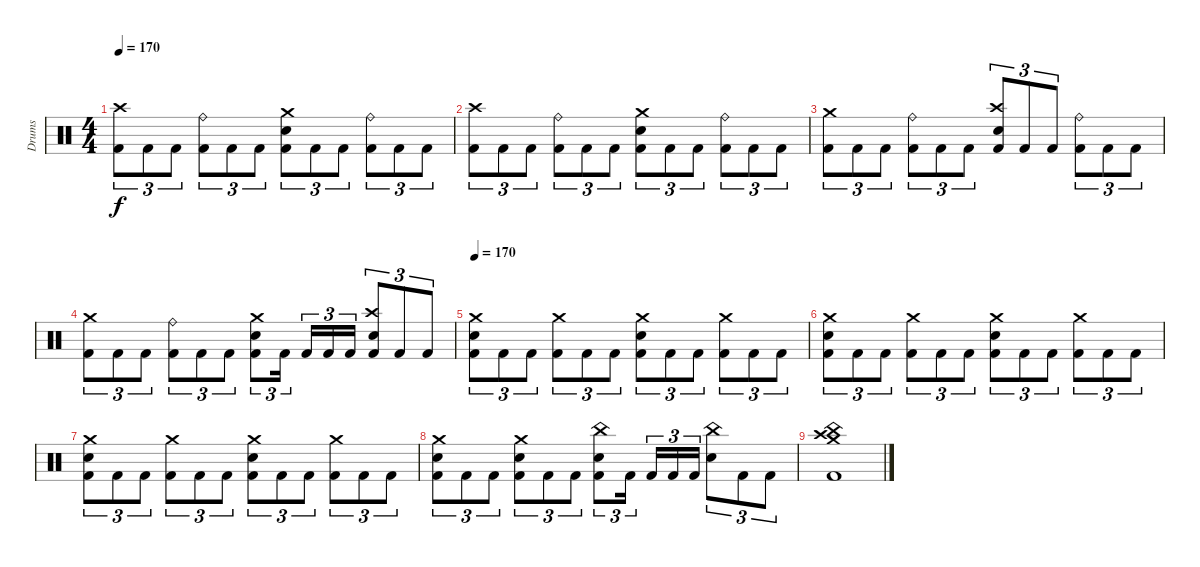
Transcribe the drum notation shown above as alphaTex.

\track ("Drums" "Drums") {instrument percussion}
\staff {score}
\articulation defaults
\ts (4 4)
\tempo 170
\clef neutral
\ks c
("Kick (hit) 2" "Crash high (hit)").8{tu (3 2) dy f} "Kick (hit) 2".8{tu (3 2)} "Kick (hit) 2".8{tu (3 2)} ("Kick (hit) 2" "Ride (bell)").8{tu (3 2)} "Kick (hit) 2".8{tu (3 2)} "Kick (hit) 2".8{tu (3 2)} ("Kick (hit) 2" "Electric Snare (hit)" "Crash medium (hit)").8{tu (3 2)} "Kick (hit) 2".8{tu (3 2)} "Kick (hit) 2".8{tu (3 2)} ("Kick (hit) 2" "Ride (bell)").8{tu (3 2)} "Kick (hit) 2".8{tu (3 2)} "Kick (hit) 2".8{tu (3 2)} |
("Kick (hit) 2" "Crash high (hit)").8{tu (3 2)} "Kick (hit) 2".8{tu (3 2)} "Kick (hit) 2".8{tu (3 2)} ("Kick (hit) 2" "Ride (bell)").8{tu (3 2)} "Kick (hit) 2".8{tu (3 2)} "Kick (hit) 2".8{tu (3 2)} ("Kick (hit) 2" "Electric Snare (hit)" "Crash medium (hit)").8{tu (3 2)} "Kick (hit) 2".8{tu (3 2)} "Kick (hit) 2".8{tu (3 2)} ("Kick (hit) 2" "Ride (bell)").8{tu (3 2)} "Kick (hit) 2".8{tu (3 2)} "Kick (hit) 2".8{tu (3 2)} |
("Kick (hit) 2" "Crash medium (hit)").8{tu (3 2)} "Kick (hit) 2".8{tu (3 2)} "Kick (hit) 2".8{tu (3 2)} ("Kick (hit) 2" "Ride (bell)").8{tu (3 2)} "Kick (hit) 2".8{tu (3 2)} "Kick (hit) 2".8{tu (3 2)} ("Kick (hit) 2" "Electric Snare (hit)" "Crash high (hit)").8{tu (3 2)} "Kick (hit) 2".8{tu (3 2)} "Kick (hit) 2".8{tu (3 2)} ("Kick (hit) 2" "Ride (bell)").8{tu (3 2)} "Kick (hit) 2".8{tu (3 2)} "Kick (hit) 2".8{tu (3 2)} |
("Kick (hit) 2" "Crash medium (hit)").8{tu (3 2)} "Kick (hit) 2".8{tu (3 2)} "Kick (hit) 2".8{tu (3 2)} ("Kick (hit) 2" "Ride (bell)").8{tu (3 2)} "Kick (hit) 2".8{tu (3 2)} "Kick (hit) 2".8{tu (3 2)} ("Kick (hit) 2" "Electric Snare (hit)" "Crash medium (hit)").8{tu (3 2)} "Kick (hit) 2".16{tu (3 2)} "Kick (hit) 2".16{tu (3 2)} "Kick (hit) 2".16{tu (3 2)} "Kick (hit) 2".16{tu (3 2)} ("Kick (hit) 2" "Electric Snare (hit)" "Crash high (hit)").8{tu (3 2)} "Kick (hit) 2".8{tu (3 2)} "Kick (hit) 2".8{tu (3 2)} |
\tempo 170
("Kick (hit) 2" "Electric Snare (hit)" "Crash medium (hit)").8{tu (3 2)} "Kick (hit) 2".8{tu (3 2)} "Kick (hit) 2".8{tu (3 2)} ("Kick (hit) 2" "Crash medium (hit)").8{tu (3 2)} "Kick (hit) 2".8{tu (3 2)} "Kick (hit) 2".8{tu (3 2)} ("Kick (hit) 2" "Electric Snare (hit)" "Crash medium (hit)").8{tu (3 2)} "Kick (hit) 2".8{tu (3 2)} "Kick (hit) 2".8{tu (3 2)} ("Kick (hit) 2" "Crash medium (hit)").8{tu (3 2)} "Kick (hit) 2".8{tu (3 2)} "Kick (hit) 2".8{tu (3 2)} |
("Kick (hit) 2" "Electric Snare (hit)" "Crash medium (hit)").8{tu (3 2)} "Kick (hit) 2".8{tu (3 2)} "Kick (hit) 2".8{tu (3 2)} ("Kick (hit) 2" "Crash medium (hit)").8{tu (3 2)} "Kick (hit) 2".8{tu (3 2)} "Kick (hit) 2".8{tu (3 2)} ("Kick (hit) 2" "Electric Snare (hit)" "Crash medium (hit)").8{tu (3 2)} "Kick (hit) 2".8{tu (3 2)} "Kick (hit) 2".8{tu (3 2)} ("Kick (hit) 2" "Crash medium (hit)").8{tu (3 2)} "Kick (hit) 2".8{tu (3 2)} "Kick (hit) 2".8{tu (3 2)} |
("Kick (hit) 2" "Electric Snare (hit)" "Crash medium (hit)").8{tu (3 2)} "Kick (hit) 2".8{tu (3 2)} "Kick (hit) 2".8{tu (3 2)} ("Kick (hit) 2" "Crash medium (hit)").8{tu (3 2)} "Kick (hit) 2".8{tu (3 2)} "Kick (hit) 2".8{tu (3 2)} ("Kick (hit) 2" "Electric Snare (hit)" "Crash medium (hit)").8{tu (3 2)} "Kick (hit) 2".8{tu (3 2)} "Kick (hit) 2".8{tu (3 2)} ("Kick (hit) 2" "Crash medium (hit)").8{tu (3 2)} "Kick (hit) 2".8{tu (3 2)} "Kick (hit) 2".8{tu (3 2)} |
("Kick (hit) 2" "Electric Snare (hit)" "Crash medium (hit)").8{tu (3 2)} "Kick (hit) 2".8{tu (3 2)} "Kick (hit) 2".8{tu (3 2)} ("Kick (hit) 2" "Electric Snare (hit)" "Crash medium (hit)").8{tu (3 2)} "Kick (hit) 2".8{tu (3 2)} "Kick (hit) 2".8{tu (3 2)} ("Kick (hit) 2" "Electric Snare (hit)" "China (hit)").8{tu (3 2)} "Kick (hit) 2".16{tu (3 2)} "Kick (hit) 2".16{tu (3 2)} "Kick (hit) 2".16{tu (3 2)} "Kick (hit) 2".16{tu (3 2)} ("Electric Snare (hit)" "China (hit)").8{tu (3 2)} "Kick (hit) 2".8{tu (3 2)} "Kick (hit) 2".8{tu (3 2)} |
("Kick (hit) 2" "Crash medium (hit)" "Crash high (hit)" "China (hit)").1
